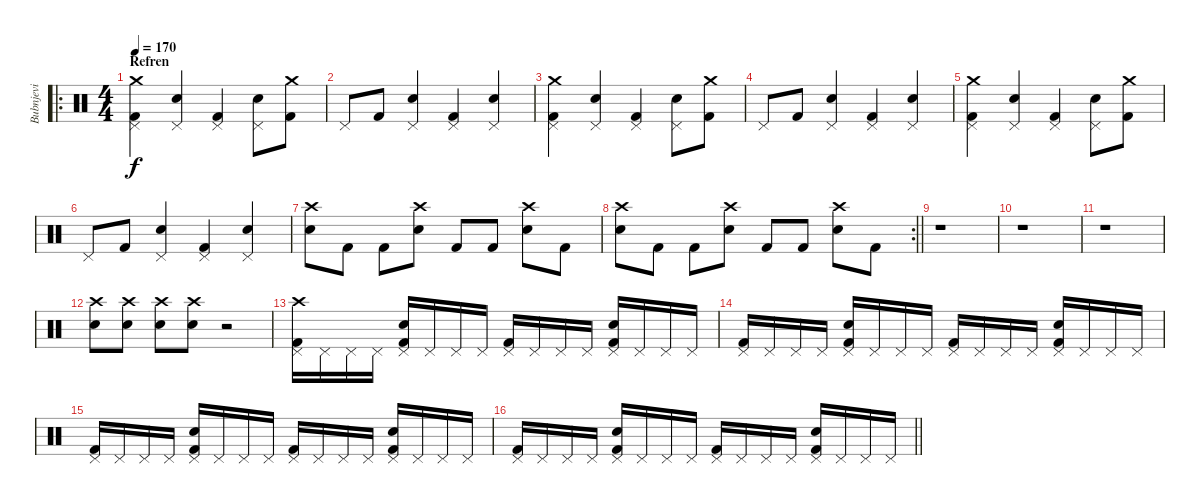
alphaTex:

\track ("Bubnjevi" "Bubnjevi") {instrument percussion}
\staff {score}
\articulation defaults
\ro
\ts (4 4)
\section ("" "Refren")
\tempo 170
\clef neutral
\ks c
("Crash medium (hit)" "Pedal Hi-Hat (hit)" "Kick (hit) 2").4{dy f} ("Pedal Hi-Hat (hit)" "Electric Snare (hit)").4 ("Pedal Hi-Hat (hit)" "Kick (hit) 2").4 ("Pedal Hi-Hat (hit)" "Electric Snare (hit)").8 ("Crash medium (hit)" "Kick (hit) 2").8 |
"Pedal Hi-Hat (hit)".8 "Kick (hit) 2".8 ("Pedal Hi-Hat (hit)" "Electric Snare (hit)").4 ("Pedal Hi-Hat (hit)" "Kick (hit) 2").4 ("Pedal Hi-Hat (hit)" "Electric Snare (hit)").4 |
("Crash medium (hit)" "Pedal Hi-Hat (hit)" "Kick (hit) 2").4 ("Pedal Hi-Hat (hit)" "Electric Snare (hit)").4 ("Pedal Hi-Hat (hit)" "Kick (hit) 2").4 ("Pedal Hi-Hat (hit)" "Electric Snare (hit)").8 ("Crash medium (hit)" "Kick (hit) 2").8 |
"Pedal Hi-Hat (hit)".8 "Kick (hit) 2".8 ("Pedal Hi-Hat (hit)" "Electric Snare (hit)").4 ("Pedal Hi-Hat (hit)" "Kick (hit) 2").4 ("Pedal Hi-Hat (hit)" "Electric Snare (hit)").4 |
("Crash medium (hit)" "Pedal Hi-Hat (hit)" "Kick (hit) 2").4 ("Pedal Hi-Hat (hit)" "Electric Snare (hit)").4 ("Pedal Hi-Hat (hit)" "Kick (hit) 2").4 ("Pedal Hi-Hat (hit)" "Electric Snare (hit)").8 ("Crash medium (hit)" "Kick (hit) 2").8 |
"Pedal Hi-Hat (hit)".8 "Kick (hit) 2".8 ("Pedal Hi-Hat (hit)" "Electric Snare (hit)").4 ("Pedal Hi-Hat (hit)" "Kick (hit) 2").4 ("Pedal Hi-Hat (hit)" "Electric Snare (hit)").4 |
("Crash high (hit)" "Electric Snare (hit)").8 "Kick (hit) 2".8 "Kick (hit) 2".8 ("Crash high (hit)" "Electric Snare (hit)").8 "Kick (hit) 2".8 "Kick (hit) 2".8 ("Crash high (hit)" "Electric Snare (hit)").8 "Kick (hit) 2".8 |
\rc 2
\barLineRight lightlight
("Crash high (hit)" "Electric Snare (hit)").8 "Kick (hit) 2".8 "Kick (hit) 2".8 ("Crash high (hit)" "Electric Snare (hit)").8 "Kick (hit) 2".8 "Kick (hit) 2".8 ("Crash high (hit)" "Electric Snare (hit)").8 "Kick (hit) 2".8 |
r.1 |
r.1 |
r.1 |
("Crash high (hit)" "Electric Snare (hit)").8 ("Crash high (hit)" "Electric Snare (hit)").8 ("Crash high (hit)" "Electric Snare (hit)").8 ("Crash high (hit)" "Electric Snare (hit)").8 r.2 |
("Crash high (hit)" "Pedal Hi-Hat (hit)" "Kick (hit) 2").16 "Pedal Hi-Hat (hit)".16 "Pedal Hi-Hat (hit)".16 "Pedal Hi-Hat (hit)".16 ("Pedal Hi-Hat (hit)" "Electric Snare (hit)" "Kick (hit) 2").16 "Pedal Hi-Hat (hit)".16 "Pedal Hi-Hat (hit)".16 "Pedal Hi-Hat (hit)".16 ("Pedal Hi-Hat (hit)" "Kick (hit) 2").16 "Pedal Hi-Hat (hit)".16 "Pedal Hi-Hat (hit)".16 "Pedal Hi-Hat (hit)".16 ("Pedal Hi-Hat (hit)" "Electric Snare (hit)" "Kick (hit) 2").16 "Pedal Hi-Hat (hit)".16 "Pedal Hi-Hat (hit)".16 "Pedal Hi-Hat (hit)".16 |
("Pedal Hi-Hat (hit)" "Kick (hit) 2").16 "Pedal Hi-Hat (hit)".16 "Pedal Hi-Hat (hit)".16 "Pedal Hi-Hat (hit)".16 ("Pedal Hi-Hat (hit)" "Electric Snare (hit)" "Kick (hit) 2").16 "Pedal Hi-Hat (hit)".16 "Pedal Hi-Hat (hit)".16 "Pedal Hi-Hat (hit)".16 ("Pedal Hi-Hat (hit)" "Kick (hit) 2").16 "Pedal Hi-Hat (hit)".16 "Pedal Hi-Hat (hit)".16 "Pedal Hi-Hat (hit)".16 ("Pedal Hi-Hat (hit)" "Electric Snare (hit)" "Kick (hit) 2").16 "Pedal Hi-Hat (hit)".16 "Pedal Hi-Hat (hit)".16 "Pedal Hi-Hat (hit)".16 |
("Pedal Hi-Hat (hit)" "Kick (hit) 2").16 "Pedal Hi-Hat (hit)".16 "Pedal Hi-Hat (hit)".16 "Pedal Hi-Hat (hit)".16 ("Pedal Hi-Hat (hit)" "Electric Snare (hit)" "Kick (hit) 2").16 "Pedal Hi-Hat (hit)".16 "Pedal Hi-Hat (hit)".16 "Pedal Hi-Hat (hit)".16 ("Pedal Hi-Hat (hit)" "Kick (hit) 2").16 "Pedal Hi-Hat (hit)".16 "Pedal Hi-Hat (hit)".16 "Pedal Hi-Hat (hit)".16 ("Pedal Hi-Hat (hit)" "Electric Snare (hit)" "Kick (hit) 2").16 "Pedal Hi-Hat (hit)".16 "Pedal Hi-Hat (hit)".16 "Pedal Hi-Hat (hit)".16 |
\barLineRight lightlight
("Pedal Hi-Hat (hit)" "Kick (hit) 2").16 "Pedal Hi-Hat (hit)".16 "Pedal Hi-Hat (hit)".16 "Pedal Hi-Hat (hit)".16 ("Pedal Hi-Hat (hit)" "Electric Snare (hit)" "Kick (hit) 2").16 "Pedal Hi-Hat (hit)".16 "Pedal Hi-Hat (hit)".16 "Pedal Hi-Hat (hit)".16 ("Pedal Hi-Hat (hit)" "Kick (hit) 2").16 "Pedal Hi-Hat (hit)".16 "Pedal Hi-Hat (hit)".16 "Pedal Hi-Hat (hit)".16 ("Pedal Hi-Hat (hit)" "Electric Snare (hit)" "Kick (hit) 2").16 "Pedal Hi-Hat (hit)".16 "Pedal Hi-Hat (hit)".16 "Pedal Hi-Hat (hit)".16
